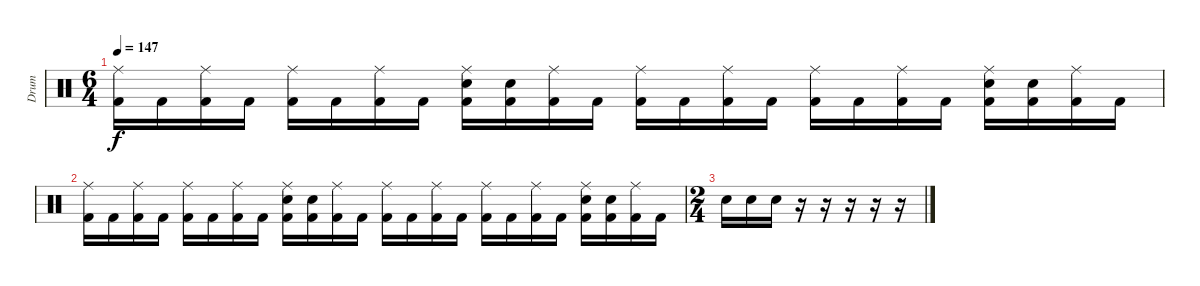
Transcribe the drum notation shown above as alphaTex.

\track ("Drum" "Drum") {instrument percussion}
\staff {score}
\articulation defaults
\ts (6 4)
\tempo 147
\clef neutral
\ks c
("Ride (middle)" "Kick (hit) 2").16{dy f} "Kick (hit) 2".16 ("Ride (middle)" "Kick (hit) 2").16 "Kick (hit) 2".16 ("Ride (middle)" "Kick (hit) 2").16 "Kick (hit) 2".16 ("Ride (middle)" "Kick (hit) 2").16 "Kick (hit) 2".16 ("Ride (middle)" "Snare (hit) 2" "Kick (hit) 2").16 ("Snare (hit) 2" "Kick (hit) 2").16 ("Ride (middle)" "Kick (hit) 2").16 "Kick (hit) 2".16 ("Ride (middle)" "Kick (hit) 2").16 "Kick (hit) 2".16 ("Ride (middle)" "Kick (hit) 2").16 "Kick (hit) 2".16 ("Ride (middle)" "Kick (hit) 2").16 "Kick (hit) 2".16 ("Ride (middle)" "Kick (hit) 2").16 "Kick (hit) 2".16 ("Ride (middle)" "Snare (hit) 2" "Kick (hit) 2").16 ("Snare (hit) 2" "Kick (hit) 2").16 ("Ride (middle)" "Kick (hit) 2").16 "Kick (hit) 2".16 |
("Ride (middle)" "Kick (hit) 2").16 "Kick (hit) 2".16 ("Ride (middle)" "Kick (hit) 2").16 "Kick (hit) 2".16 ("Ride (middle)" "Kick (hit) 2").16 "Kick (hit) 2".16 ("Ride (middle)" "Kick (hit) 2").16 "Kick (hit) 2".16 ("Ride (middle)" "Snare (hit) 2" "Kick (hit) 2").16 ("Snare (hit) 2" "Kick (hit) 2").16 ("Ride (middle)" "Kick (hit) 2").16 "Kick (hit) 2".16 ("Ride (middle)" "Kick (hit) 2").16 "Kick (hit) 2".16 ("Ride (middle)" "Kick (hit) 2").16 "Kick (hit) 2".16 ("Ride (middle)" "Kick (hit) 2").16 "Kick (hit) 2".16 ("Ride (middle)" "Kick (hit) 2").16 "Kick (hit) 2".16 ("Ride (middle)" "Snare (hit) 2" "Kick (hit) 2").16 ("Snare (hit) 2" "Kick (hit) 2").16 ("Ride (middle)" "Kick (hit) 2").16 "Kick (hit) 2".16 |
\ts (2 4)
"Snare (hit) 2".16 "Snare (hit) 2".16 "Snare (hit) 2".16 r.16 r.16 r.16 r.16 r.16
